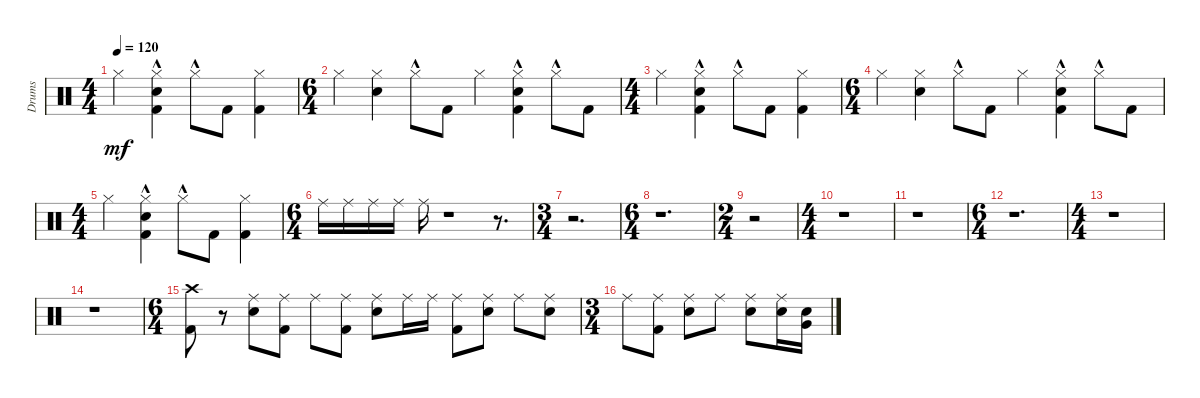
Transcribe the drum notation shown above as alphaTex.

\track ("Drums" "Drums") {instrument percussion}
\staff {score}
\articulation defaults
\ts (4 4)
\tempo 120
\clef neutral
\ks c "Hi-Hat (closed)".4{dy mf}
("Kick (hit) 2"{hac} "Snare (hit) 2" "Hi-Hat (closed)").4 "Hi-Hat (closed)"{hac}.8 "Kick (hit) 2".8 ("Kick (hit) 2" "Hi-Hat (closed)").4 |
\ts (6 4)
"Hi-Hat (closed)".4 ("Snare (hit) 2" "Hi-Hat (closed)").4 "Hi-Hat (closed)"{hac}.8 "Kick (hit) 2".8 "Hi-Hat (closed)".4 ("Kick (hit) 2"{hac} "Snare (hit) 2" "Hi-Hat (closed)").4 "Hi-Hat (closed)"{hac}.8 "Kick (hit) 2".8 |
\ts (4 4)
"Hi-Hat (closed)".4 ("Kick (hit) 2"{hac} "Snare (hit) 2" "Hi-Hat (closed)").4 "Hi-Hat (closed)"{hac}.8 "Kick (hit) 2".8 ("Kick (hit) 2" "Hi-Hat (closed)").4 |
\ts (6 4)
"Hi-Hat (closed)".4 ("Snare (hit) 2" "Hi-Hat (closed)").4 "Hi-Hat (closed)"{hac}.8 "Kick (hit) 2".8 "Hi-Hat (closed)".4 ("Kick (hit) 2"{hac} "Snare (hit) 2" "Hi-Hat (closed)").4 "Hi-Hat (closed)"{hac}.8 "Kick (hit) 2".8 |
\ts (4 4)
"Hi-Hat (closed)".4 ("Kick (hit) 2"{hac} "Snare (hit) 2" "Hi-Hat (closed)").4 "Hi-Hat (closed)"{hac}.8 "Kick (hit) 2".8 ("Kick (hit) 2" "Hi-Hat (closed)").4 |
\ts (6 4)
"Ride (middle)".16 "Ride (middle)".16 "Ride (middle)".16 "Ride (middle)".16 "Ride (middle)".16 r.1 r.8{d} |
\ts (3 4)
r.2{d} |
\ts (6 4)
r.1{d} |
\ts (2 4)
r.2 |
\ts (4 4)
r.1 |
r.1 |
\ts (6 4)
r.1{d} |
\ts (4 4)
r.1 |
r.1 |
\ts (6 4)
("Kick (hit) 2" "Crash high (hit)").8 r.8 ("Snare (hit) 2" "Ride (middle)").8 ("Kick (hit) 2" "Ride (middle)").8 "Ride (middle)".8 ("Kick (hit) 2" "Ride (middle)").8 ("Snare (hit) 2" "Ride (middle)").8 "Ride (middle)".16 "Ride (middle)".16 ("Kick (hit) 2" "Ride (middle)").8 ("Snare (hit) 2" "Ride (middle)").8 "Ride (middle)".8 ("Snare (hit) 2" "Ride (middle)").8 |
\ts (3 4)
"Ride (middle)".8 ("Kick (hit) 2" "Ride (middle)").8 ("Snare (hit) 2" "Ride (middle)").8 "Ride (middle)".8 ("Snare (hit) 2" "Ride (middle)").8 ("Snare (hit) 2" "Ride (middle)").16 ("Snare (hit) 2" "Very Low Tom (hit)").16
